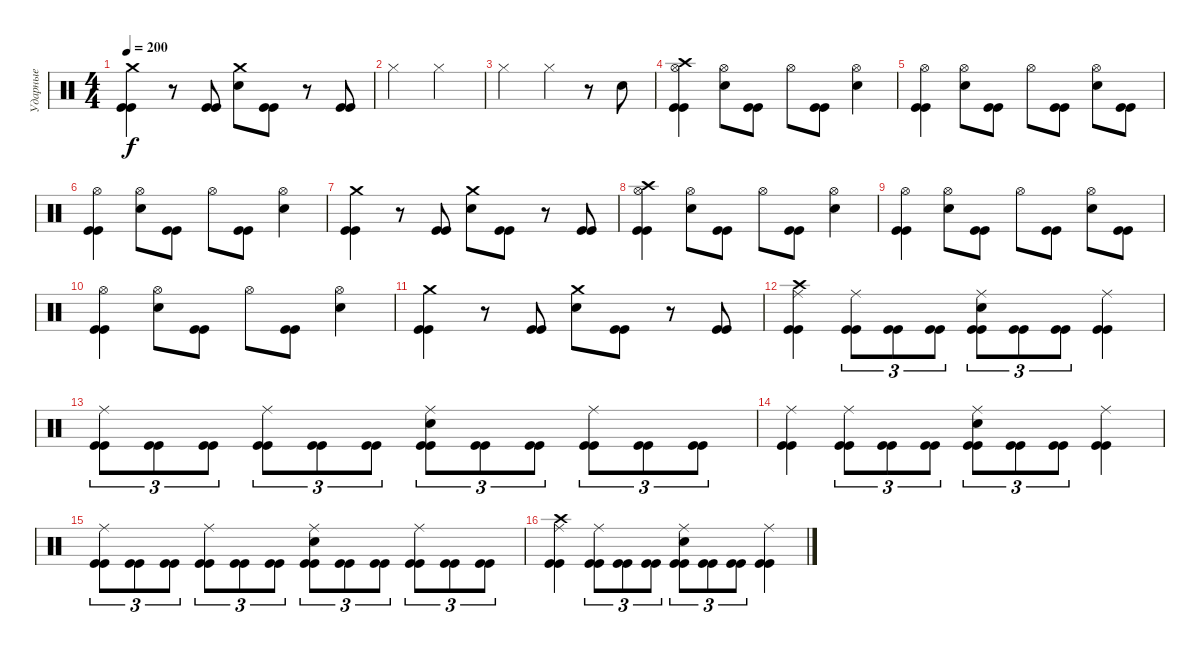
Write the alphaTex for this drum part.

\track ("Ударные" "Ударные") {instrument percussion}
\staff {score}
\articulation defaults
\ts (4 4)
\tempo 200
\clef neutral
\ks c
("Crash medium (hit)" "Kick (hit)" "Kick (hit)").4{dy f} r.8 ("Kick (hit)" "Kick (hit)").8 ("Crash medium (hit)" "Electric Snare (hit)").8 ("Kick (hit)" "Kick (hit)").8 r.8 ("Kick (hit)" "Kick (hit)").8 |
"Hi-Hat (closed)".2 "Hi-Hat (closed)".2 |
"Hi-Hat (closed)".2 "Hi-Hat (closed)".4 r.8 "Electric Snare (hit)".8 |
("Crash high (hit)" "Hi-Hat (open)" "Kick (hit)" "Kick (hit)").4 ("Hi-Hat (open)" "Electric Snare (hit)").8 ("Kick (hit)" "Kick (hit)").8 "Hi-Hat (open)".8 ("Kick (hit)" "Kick (hit)").8 ("Hi-Hat (open)" "Electric Snare (hit)").4 |
("Hi-Hat (open)" "Kick (hit)" "Kick (hit)").4 ("Hi-Hat (open)" "Electric Snare (hit)").8 ("Kick (hit)" "Kick (hit)").8 "Hi-Hat (open)".8 ("Kick (hit)" "Kick (hit)").8 ("Hi-Hat (open)" "Electric Snare (hit)").8 ("Kick (hit)" "Kick (hit)").8 |
("Hi-Hat (open)" "Kick (hit)" "Kick (hit)").4 ("Hi-Hat (open)" "Electric Snare (hit)").8 ("Kick (hit)" "Kick (hit)").8 "Hi-Hat (open)".8 ("Kick (hit)" "Kick (hit)").8 ("Hi-Hat (open)" "Electric Snare (hit)").4 |
("Crash medium (hit)" "Kick (hit)" "Kick (hit)").4 r.8 ("Kick (hit)" "Kick (hit)").8 ("Crash medium (hit)" "Electric Snare (hit)").8 ("Kick (hit)" "Kick (hit)").8 r.8 ("Kick (hit)" "Kick (hit)").8 |
("Crash high (hit)" "Hi-Hat (open)" "Kick (hit)" "Kick (hit)").4 ("Hi-Hat (open)" "Electric Snare (hit)").8 ("Kick (hit)" "Kick (hit)").8 "Hi-Hat (open)".8 ("Kick (hit)" "Kick (hit)").8 ("Hi-Hat (open)" "Electric Snare (hit)").4 |
("Hi-Hat (open)" "Kick (hit)" "Kick (hit)").4 ("Hi-Hat (open)" "Electric Snare (hit)").8 ("Kick (hit)" "Kick (hit)").8 "Hi-Hat (open)".8 ("Kick (hit)" "Kick (hit)").8 ("Hi-Hat (open)" "Electric Snare (hit)").8 ("Kick (hit)" "Kick (hit)").8 |
("Hi-Hat (open)" "Kick (hit)" "Kick (hit)").4 ("Hi-Hat (open)" "Electric Snare (hit)").8 ("Kick (hit)" "Kick (hit)").8 "Hi-Hat (open)".8 ("Kick (hit)" "Kick (hit)").8 ("Hi-Hat (open)" "Electric Snare (hit)").4 |
("Crash medium (hit)" "Kick (hit)" "Kick (hit)").4 r.8 ("Kick (hit)" "Kick (hit)").8 ("Crash medium (hit)" "Electric Snare (hit)").8 ("Kick (hit)" "Kick (hit)").8 r.8 ("Kick (hit)" "Kick (hit)").8 |
("Crash high (hit)" "Ride (middle)" "Kick (hit)" "Kick (hit)").4 ("Ride (middle)" "Kick (hit)" "Kick (hit)").8{tu (3 2)} ("Kick (hit)" "Kick (hit)").8{tu (3 2)} ("Kick (hit)" "Kick (hit)").8{tu (3 2)} ("Ride (middle)" "Electric Snare (hit)" "Kick (hit)" "Kick (hit)").8{tu (3 2)} ("Kick (hit)" "Kick (hit)").8{tu (3 2)} ("Kick (hit)" "Kick (hit)").8{tu (3 2)} ("Ride (middle)" "Kick (hit)" "Kick (hit)").4 |
("Ride (middle)" "Kick (hit)" "Kick (hit)").8{tu (3 2)} ("Kick (hit)" "Kick (hit)").8{tu (3 2)} ("Kick (hit)" "Kick (hit)").8{tu (3 2)} ("Ride (middle)" "Kick (hit)" "Kick (hit)").8{tu (3 2)} ("Kick (hit)" "Kick (hit)").8{tu (3 2)} ("Kick (hit)" "Kick (hit)").8{tu (3 2)} ("Ride (middle)" "Electric Snare (hit)" "Kick (hit)" "Kick (hit)").8{tu (3 2)} ("Kick (hit)" "Kick (hit)").8{tu (3 2)} ("Kick (hit)" "Kick (hit)").8{tu (3 2)} ("Ride (middle)" "Kick (hit)" "Kick (hit)").8{tu (3 2)} ("Kick (hit)" "Kick (hit)").8{tu (3 2)} ("Kick (hit)" "Kick (hit)").8{tu (3 2)} |
("Ride (middle)" "Kick (hit)" "Kick (hit)").4 ("Ride (middle)" "Kick (hit)" "Kick (hit)").8{tu (3 2)} ("Kick (hit)" "Kick (hit)").8{tu (3 2)} ("Kick (hit)" "Kick (hit)").8{tu (3 2)} ("Ride (middle)" "Electric Snare (hit)" "Kick (hit)" "Kick (hit)").8{tu (3 2)} ("Kick (hit)" "Kick (hit)").8{tu (3 2)} ("Kick (hit)" "Kick (hit)").8{tu (3 2)} ("Ride (middle)" "Kick (hit)" "Kick (hit)").4 |
("Ride (middle)" "Kick (hit)" "Kick (hit)").8{tu (3 2)} ("Kick (hit)" "Kick (hit)").8{tu (3 2)} ("Kick (hit)" "Kick (hit)").8{tu (3 2)} ("Ride (middle)" "Kick (hit)" "Kick (hit)").8{tu (3 2)} ("Kick (hit)" "Kick (hit)").8{tu (3 2)} ("Kick (hit)" "Kick (hit)").8{tu (3 2)} ("Ride (middle)" "Electric Snare (hit)" "Kick (hit)" "Kick (hit)").8{tu (3 2)} ("Kick (hit)" "Kick (hit)").8{tu (3 2)} ("Kick (hit)" "Kick (hit)").8{tu (3 2)} ("Ride (middle)" "Kick (hit)" "Kick (hit)").8{tu (3 2)} ("Kick (hit)" "Kick (hit)").8{tu (3 2)} ("Kick (hit)" "Kick (hit)").8{tu (3 2)} |
("Crash high (hit)" "Ride (middle)" "Kick (hit)" "Kick (hit)").4 ("Ride (middle)" "Kick (hit)" "Kick (hit)").8{tu (3 2)} ("Kick (hit)" "Kick (hit)").8{tu (3 2)} ("Kick (hit)" "Kick (hit)").8{tu (3 2)} ("Ride (middle)" "Electric Snare (hit)" "Kick (hit)" "Kick (hit)").8{tu (3 2)} ("Kick (hit)" "Kick (hit)").8{tu (3 2)} ("Kick (hit)" "Kick (hit)").8{tu (3 2)} ("Ride (middle)" "Kick (hit)" "Kick (hit)").4
